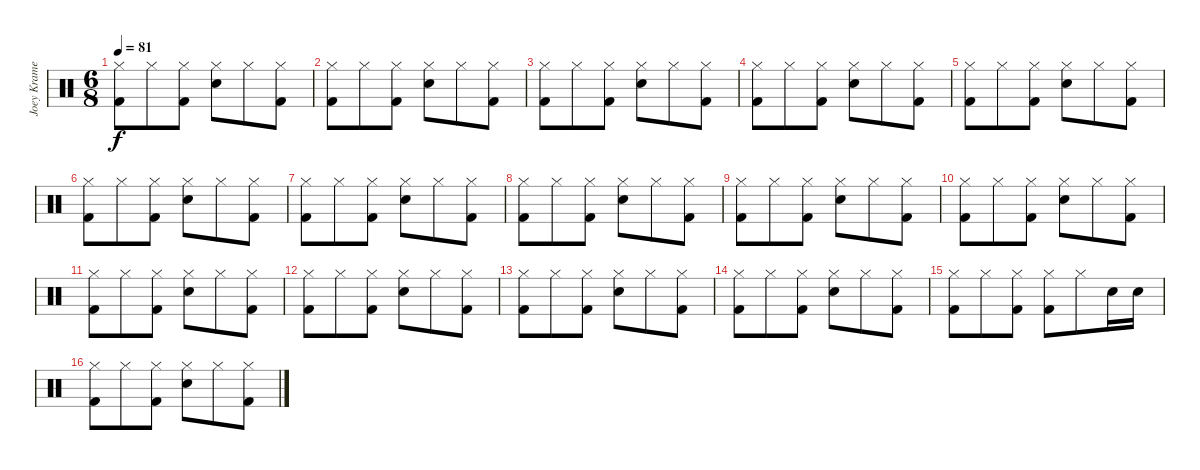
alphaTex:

\track ("Joey Kramer" "Joey Krame") {instrument percussion}
\staff {score}
\articulation defaults
\ts (6 8)
\tempo 81
\clef neutral
\ks c
("Hi-Hat (closed)" "Kick (hit) 2").8{dy f} "Hi-Hat (closed)".8 ("Hi-Hat (closed)" "Kick (hit) 2").8 ("Hi-Hat (closed)" "Snare (hit) 2").8 "Hi-Hat (closed)".8 ("Hi-Hat (closed)" "Kick (hit) 2").8 |
("Hi-Hat (closed)" "Kick (hit) 2").8 "Hi-Hat (closed)".8 ("Hi-Hat (closed)" "Kick (hit) 2").8 ("Hi-Hat (closed)" "Snare (hit) 2").8 "Hi-Hat (closed)".8 ("Hi-Hat (closed)" "Kick (hit) 2").8 |
("Hi-Hat (closed)" "Kick (hit) 2").8 "Hi-Hat (closed)".8 ("Hi-Hat (closed)" "Kick (hit) 2").8 ("Hi-Hat (closed)" "Snare (hit) 2").8 "Hi-Hat (closed)".8 ("Hi-Hat (closed)" "Kick (hit) 2").8 |
("Hi-Hat (closed)" "Kick (hit) 2").8 "Hi-Hat (closed)".8 ("Hi-Hat (closed)" "Kick (hit) 2").8 ("Hi-Hat (closed)" "Snare (hit) 2").8 "Hi-Hat (closed)".8 ("Hi-Hat (closed)" "Kick (hit) 2").8 |
("Hi-Hat (closed)" "Kick (hit) 2").8 "Hi-Hat (closed)".8 ("Hi-Hat (closed)" "Kick (hit) 2").8 ("Hi-Hat (closed)" "Snare (hit) 2").8 "Hi-Hat (closed)".8 ("Hi-Hat (closed)" "Kick (hit) 2").8 |
("Hi-Hat (closed)" "Kick (hit) 2").8 "Hi-Hat (closed)".8 ("Hi-Hat (closed)" "Kick (hit) 2").8 ("Hi-Hat (closed)" "Snare (hit) 2").8 "Hi-Hat (closed)".8 ("Hi-Hat (closed)" "Kick (hit) 2").8 |
("Hi-Hat (closed)" "Kick (hit) 2").8 "Hi-Hat (closed)".8 ("Hi-Hat (closed)" "Kick (hit) 2").8 ("Hi-Hat (closed)" "Snare (hit) 2").8 "Hi-Hat (closed)".8 ("Hi-Hat (closed)" "Kick (hit) 2").8 |
("Hi-Hat (closed)" "Kick (hit) 2").8 "Hi-Hat (closed)".8 ("Hi-Hat (closed)" "Kick (hit) 2").8 ("Hi-Hat (closed)" "Snare (hit) 2").8 "Hi-Hat (closed)".8 ("Hi-Hat (closed)" "Kick (hit) 2").8 |
("Hi-Hat (closed)" "Kick (hit) 2").8 "Hi-Hat (closed)".8 ("Hi-Hat (closed)" "Kick (hit) 2").8 ("Hi-Hat (closed)" "Snare (hit) 2").8 "Hi-Hat (closed)".8 ("Hi-Hat (closed)" "Kick (hit) 2").8 |
("Hi-Hat (closed)" "Kick (hit) 2").8 "Hi-Hat (closed)".8 ("Hi-Hat (closed)" "Kick (hit) 2").8 ("Hi-Hat (closed)" "Snare (hit) 2").8 "Hi-Hat (closed)".8 ("Hi-Hat (closed)" "Kick (hit) 2").8 |
("Hi-Hat (closed)" "Kick (hit) 2").8 "Hi-Hat (closed)".8 ("Hi-Hat (closed)" "Kick (hit) 2").8 ("Hi-Hat (closed)" "Snare (hit) 2").8 "Hi-Hat (closed)".8 ("Hi-Hat (closed)" "Kick (hit) 2").8 |
("Hi-Hat (closed)" "Kick (hit) 2").8 "Hi-Hat (closed)".8 ("Hi-Hat (closed)" "Kick (hit) 2").8 ("Hi-Hat (closed)" "Snare (hit) 2").8 "Hi-Hat (closed)".8 ("Hi-Hat (closed)" "Kick (hit) 2").8 |
("Hi-Hat (closed)" "Kick (hit) 2").8 "Hi-Hat (closed)".8 ("Hi-Hat (closed)" "Kick (hit) 2").8 ("Hi-Hat (closed)" "Snare (hit) 2").8 "Hi-Hat (closed)".8 ("Hi-Hat (closed)" "Kick (hit) 2").8 |
("Hi-Hat (closed)" "Kick (hit) 2").8 "Hi-Hat (closed)".8 ("Hi-Hat (closed)" "Kick (hit) 2").8 ("Hi-Hat (closed)" "Snare (hit) 2").8 "Hi-Hat (closed)".8 ("Hi-Hat (closed)" "Kick (hit) 2").8 |
("Hi-Hat (closed)" "Kick (hit) 2").8 "Hi-Hat (closed)".8 ("Hi-Hat (closed)" "Kick (hit) 2").8 ("Hi-Hat (closed)" "Kick (hit) 2").8 "Hi-Hat (closed)".8 "Snare (hit) 2".16 "Snare (hit) 2".16 |
("Hi-Hat (closed)" "Kick (hit) 2").8 "Hi-Hat (closed)".8 ("Hi-Hat (closed)" "Kick (hit) 2").8 ("Hi-Hat (closed)" "Snare (hit) 2").8 "Hi-Hat (closed)".8 ("Hi-Hat (closed)" "Kick (hit) 2").8
